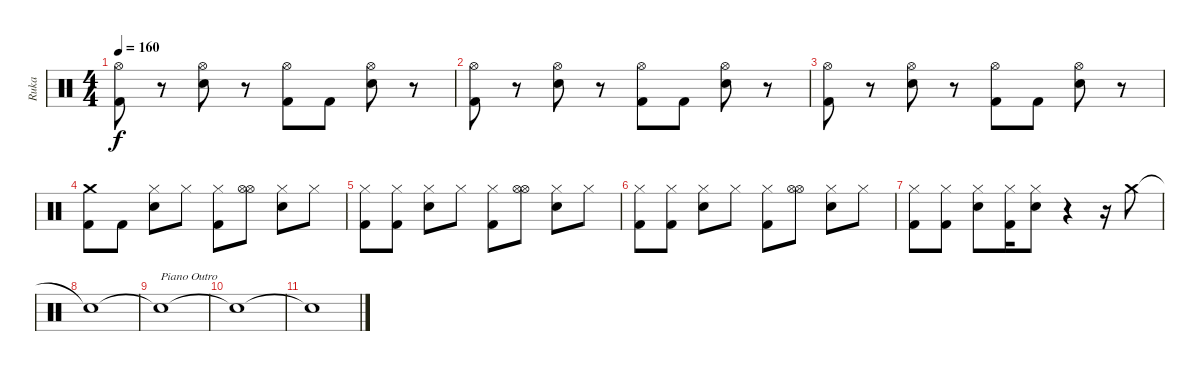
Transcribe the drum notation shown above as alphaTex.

\track ("Ruka" "Ruka") {instrument percussion}
\staff {score}
\articulation defaults
\ts (4 4)
\tempo 160
\clef neutral
\ks c
("Kick (hit) 2" "Hi-Hat (open)").8{dy f} r.8 ("Electric Snare (hit)" "Hi-Hat (open)").8 r.8 ("Kick (hit) 2" "Hi-Hat (open)").8 "Kick (hit) 2".8 ("Electric Snare (hit)" "Hi-Hat (open)").8 r.8 |
("Kick (hit) 2" "Hi-Hat (open)").8 r.8 ("Electric Snare (hit)" "Hi-Hat (open)").8 r.8 ("Kick (hit) 2" "Hi-Hat (open)").8 "Kick (hit) 2".8 ("Electric Snare (hit)" "Hi-Hat (open)").8 r.8 |
("Kick (hit) 2" "Hi-Hat (open)").8 r.8 ("Electric Snare (hit)" "Hi-Hat (open)").8 r.8 ("Kick (hit) 2" "Hi-Hat (open)").8 "Kick (hit) 2".8 ("Electric Snare (hit)" "Hi-Hat (open)").8 r.8 |
("Kick (hit) 2" "Crash medium (hit)").8 "Kick (hit) 2".8 ("Electric Snare (hit)" "Hi-Hat (closed)").8 "Hi-Hat (closed)".8 ("Kick (hit) 2" "Hi-Hat (closed)").8 ("Hi-Hat (open)" "Hi-Hat (open)").8 ("Electric Snare (hit)" "Hi-Hat (closed)").8 "Hi-Hat (closed)".8 |
("Kick (hit) 2" "Hi-Hat (closed)").8 ("Kick (hit) 2" "Hi-Hat (closed)").8 ("Electric Snare (hit)" "Hi-Hat (closed)").8 "Hi-Hat (closed)".8 ("Kick (hit) 2" "Hi-Hat (closed)").8 ("Hi-Hat (open)" "Hi-Hat (open)").8 ("Electric Snare (hit)" "Hi-Hat (closed)").8 "Hi-Hat (closed)".8 |
("Kick (hit) 2" "Hi-Hat (closed)").8 ("Kick (hit) 2" "Hi-Hat (closed)").8 ("Electric Snare (hit)" "Hi-Hat (closed)").8 "Hi-Hat (closed)".8 ("Kick (hit) 2" "Hi-Hat (closed)").8 ("Hi-Hat (open)" "Hi-Hat (open)").8 ("Electric Snare (hit)" "Hi-Hat (closed)").8 "Hi-Hat (closed)".8 |
("Kick (hit) 2" "Hi-Hat (closed)").8 ("Kick (hit) 2" "Hi-Hat (closed)").8 ("Electric Snare (hit)" "Hi-Hat (closed)").8 ("Kick (hit) 2" "Hi-Hat (closed)").16 ("Electric Snare (hit)" "Hi-Hat (closed)").8 r.4 r.16 "Crash medium (hit)".8 |
"Snare (hit)"{t}.1 |
"Snare (hit)"{t}.1{txt "Piano Outro"} |
"Snare (hit)"{t}.1 |
"Snare (hit)"{t}.1
